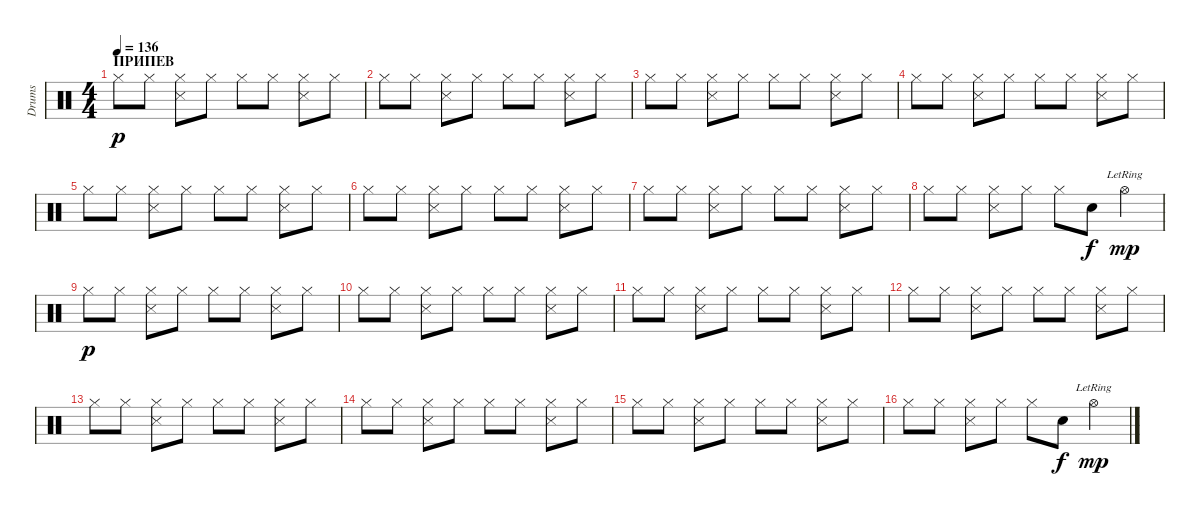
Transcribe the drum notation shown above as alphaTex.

\track ("Drums" "Drums") {instrument percussion}
\staff {score}
\articulation defaults
\ts (4 4)
\section ("" "ПРИПЕВ")
\tempo 136
\clef neutral
\ks c "Hi-Hat (closed)".8{dy p} "Hi-Hat (closed)".8
("Hi-Hat (closed)" "Snare (side stick) 3").8 "Hi-Hat (closed)".8 "Hi-Hat (closed)".8 "Hi-Hat (closed)".8 ("Hi-Hat (closed)" "Snare (side stick) 3").8 "Hi-Hat (closed)".8 |
"Hi-Hat (closed)".8 "Hi-Hat (closed)".8 ("Hi-Hat (closed)" "Snare (side stick) 3").8 "Hi-Hat (closed)".8 "Hi-Hat (closed)".8 "Hi-Hat (closed)".8 ("Hi-Hat (closed)" "Snare (side stick) 3").8 "Hi-Hat (closed)".8 |
"Hi-Hat (closed)".8 "Hi-Hat (closed)".8 ("Hi-Hat (closed)" "Snare (side stick) 3").8 "Hi-Hat (closed)".8 "Hi-Hat (closed)".8 "Hi-Hat (closed)".8 ("Hi-Hat (closed)" "Snare (side stick) 3").8 "Hi-Hat (closed)".8 |
"Hi-Hat (closed)".8 "Hi-Hat (closed)".8 ("Hi-Hat (closed)" "Snare (side stick) 3").8 "Hi-Hat (closed)".8 "Hi-Hat (closed)".8 "Hi-Hat (closed)".8 ("Hi-Hat (closed)" "Snare (side stick) 3").8 "Hi-Hat (closed)".8 |
"Hi-Hat (closed)".8 "Hi-Hat (closed)".8 ("Hi-Hat (closed)" "Snare (side stick) 3").8 "Hi-Hat (closed)".8 "Hi-Hat (closed)".8 "Hi-Hat (closed)".8 ("Hi-Hat (closed)" "Snare (side stick) 3").8 "Hi-Hat (closed)".8 |
"Hi-Hat (closed)".8 "Hi-Hat (closed)".8 ("Hi-Hat (closed)" "Snare (side stick) 3").8 "Hi-Hat (closed)".8 "Hi-Hat (closed)".8 "Hi-Hat (closed)".8 ("Hi-Hat (closed)" "Snare (side stick) 3").8 "Hi-Hat (closed)".8 |
"Hi-Hat (closed)".8 "Hi-Hat (closed)".8 ("Hi-Hat (closed)" "Snare (side stick) 3").8 "Hi-Hat (closed)".8 "Hi-Hat (closed)".8 "Hi-Hat (closed)".8 ("Hi-Hat (closed)" "Snare (side stick) 3").8 "Hi-Hat (closed)".8 |
"Hi-Hat (closed)".8 "Hi-Hat (closed)".8 ("Hi-Hat (closed)" "Snare (side stick) 3").8 "Hi-Hat (closed)".8 "Hi-Hat (closed)".8 "Electric Snare (hit)".8{dy f} "Hi-Hat (open)"{lr}.4{dy mp} |
"Hi-Hat (closed)".8{dy p} "Hi-Hat (closed)".8 ("Hi-Hat (closed)" "Snare (side stick) 3").8 "Hi-Hat (closed)".8 "Hi-Hat (closed)".8 "Hi-Hat (closed)".8 ("Hi-Hat (closed)" "Snare (side stick) 3").8 "Hi-Hat (closed)".8 |
"Hi-Hat (closed)".8 "Hi-Hat (closed)".8 ("Hi-Hat (closed)" "Snare (side stick) 3").8 "Hi-Hat (closed)".8 "Hi-Hat (closed)".8 "Hi-Hat (closed)".8 ("Hi-Hat (closed)" "Snare (side stick) 3").8 "Hi-Hat (closed)".8 |
"Hi-Hat (closed)".8 "Hi-Hat (closed)".8 ("Hi-Hat (closed)" "Snare (side stick) 3").8 "Hi-Hat (closed)".8 "Hi-Hat (closed)".8 "Hi-Hat (closed)".8 ("Hi-Hat (closed)" "Snare (side stick) 3").8 "Hi-Hat (closed)".8 |
"Hi-Hat (closed)".8 "Hi-Hat (closed)".8 ("Hi-Hat (closed)" "Snare (side stick) 3").8 "Hi-Hat (closed)".8 "Hi-Hat (closed)".8 "Hi-Hat (closed)".8 ("Hi-Hat (closed)" "Snare (side stick) 3").8 "Hi-Hat (closed)".8 |
"Hi-Hat (closed)".8 "Hi-Hat (closed)".8 ("Hi-Hat (closed)" "Snare (side stick) 3").8 "Hi-Hat (closed)".8 "Hi-Hat (closed)".8 "Hi-Hat (closed)".8 ("Hi-Hat (closed)" "Snare (side stick) 3").8 "Hi-Hat (closed)".8 |
"Hi-Hat (closed)".8 "Hi-Hat (closed)".8 ("Hi-Hat (closed)" "Snare (side stick) 3").8 "Hi-Hat (closed)".8 "Hi-Hat (closed)".8 "Hi-Hat (closed)".8 ("Hi-Hat (closed)" "Snare (side stick) 3").8 "Hi-Hat (closed)".8 |
"Hi-Hat (closed)".8 "Hi-Hat (closed)".8 ("Hi-Hat (closed)" "Snare (side stick) 3").8 "Hi-Hat (closed)".8 "Hi-Hat (closed)".8 "Hi-Hat (closed)".8 ("Hi-Hat (closed)" "Snare (side stick) 3").8 "Hi-Hat (closed)".8 |
"Hi-Hat (closed)".8 "Hi-Hat (closed)".8 ("Hi-Hat (closed)" "Snare (side stick) 3").8 "Hi-Hat (closed)".8 "Hi-Hat (closed)".8 "Electric Snare (hit)".8{dy f} "Hi-Hat (open)"{lr}.4{dy mp}
